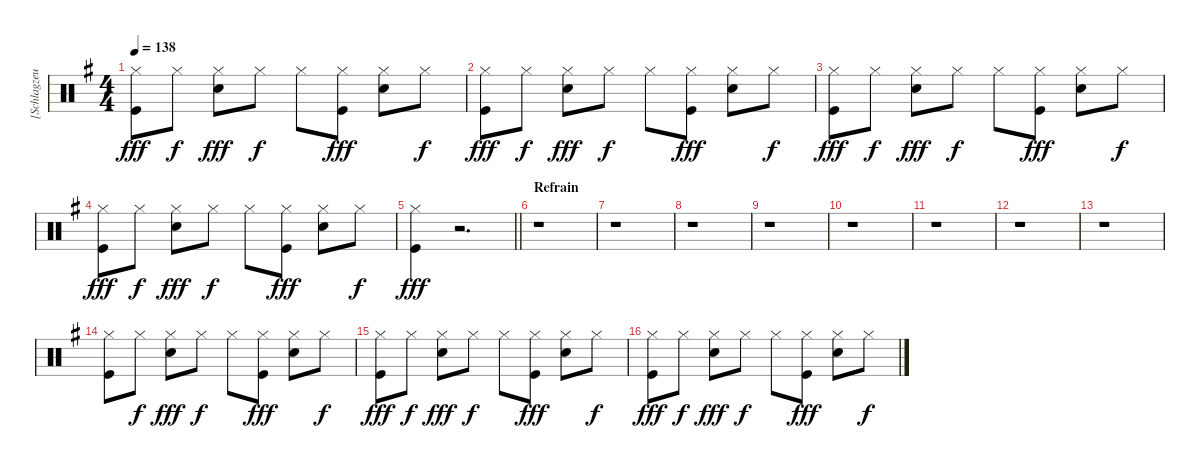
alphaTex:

\track ("[Schlagzeug]" "[Schlagzeu") {instrument percussion}
\staff {score}
\articulation defaults
\ts (4 4)
\tempo 138
\clef neutral
\ks eminor
("Hi-Hat (closed)" "Kick (hit)").8{dy fff} "Hi-Hat (closed)".8{dy f} ("Hi-Hat (closed)" "Electric Snare (hit)").8{dy fff} "Hi-Hat (closed)".8{dy f} "Hi-Hat (closed)".8 ("Hi-Hat (closed)" "Kick (hit)").8{dy fff} ("Hi-Hat (closed)" "Electric Snare (hit)").8 "Hi-Hat (closed)".8{dy f} |
("Hi-Hat (closed)" "Kick (hit)").8{dy fff} "Hi-Hat (closed)".8{dy f} ("Hi-Hat (closed)" "Electric Snare (hit)").8{dy fff} "Hi-Hat (closed)".8{dy f} "Hi-Hat (closed)".8 ("Hi-Hat (closed)" "Kick (hit)").8{dy fff} ("Hi-Hat (closed)" "Electric Snare (hit)").8 "Hi-Hat (closed)".8{dy f} |
("Hi-Hat (closed)" "Kick (hit)").8{dy fff} "Hi-Hat (closed)".8{dy f} ("Hi-Hat (closed)" "Electric Snare (hit)").8{dy fff} "Hi-Hat (closed)".8{dy f} "Hi-Hat (closed)".8 ("Hi-Hat (closed)" "Kick (hit)").8{dy fff} ("Hi-Hat (closed)" "Electric Snare (hit)").8 "Hi-Hat (closed)".8{dy f} |
("Hi-Hat (closed)" "Kick (hit)").8{dy fff} "Hi-Hat (closed)".8{dy f} ("Hi-Hat (closed)" "Electric Snare (hit)").8{dy fff} "Hi-Hat (closed)".8{dy f} "Hi-Hat (closed)".8 ("Hi-Hat (closed)" "Kick (hit)").8{dy fff} ("Hi-Hat (closed)" "Electric Snare (hit)").8 "Hi-Hat (closed)".8{dy f} |
\barLineRight lightlight
("Hi-Hat (closed)" "Kick (hit)").4{dy fff} r.2{d} |
\section ("" "Refrain")
r.1 |
r.1 |
r.1 |
r.1 |
r.1 |
r.1 |
r.1 |
r.1 |
("Hi-Hat (closed)" "Kick (hit)").8 "Hi-Hat (closed)".8{dy f} ("Hi-Hat (closed)" "Electric Snare (hit)").8{dy fff} "Hi-Hat (closed)".8{dy f} "Hi-Hat (closed)".8 ("Hi-Hat (closed)" "Kick (hit)").8{dy fff} ("Hi-Hat (closed)" "Electric Snare (hit)").8 "Hi-Hat (closed)".8{dy f} |
("Hi-Hat (closed)" "Kick (hit)").8{dy fff} "Hi-Hat (closed)".8{dy f} ("Hi-Hat (closed)" "Electric Snare (hit)").8{dy fff} "Hi-Hat (closed)".8{dy f} "Hi-Hat (closed)".8 ("Hi-Hat (closed)" "Kick (hit)").8{dy fff} ("Hi-Hat (closed)" "Electric Snare (hit)").8 "Hi-Hat (closed)".8{dy f} |
("Hi-Hat (closed)" "Kick (hit)").8{dy fff} "Hi-Hat (closed)".8{dy f} ("Hi-Hat (closed)" "Electric Snare (hit)").8{dy fff} "Hi-Hat (closed)".8{dy f} "Hi-Hat (closed)".8 ("Hi-Hat (closed)" "Kick (hit)").8{dy fff} ("Hi-Hat (closed)" "Electric Snare (hit)").8 "Hi-Hat (closed)".8{dy f}
